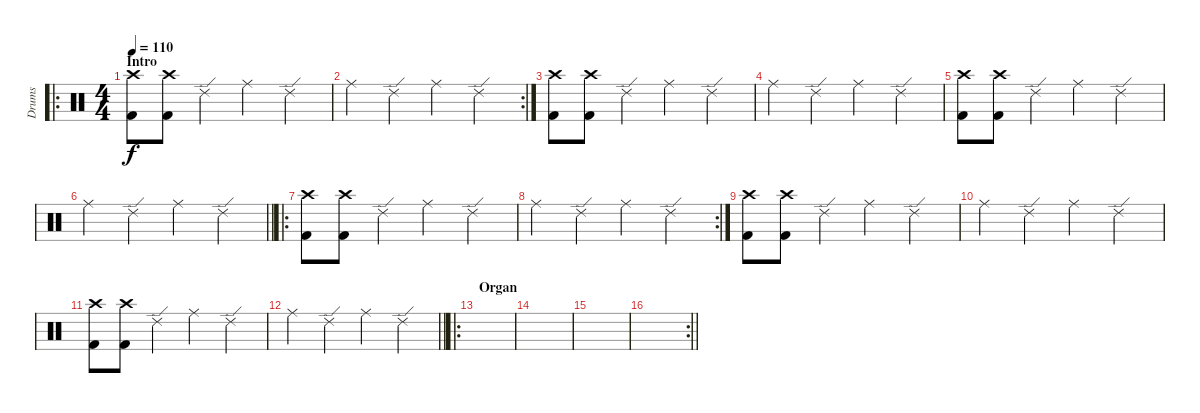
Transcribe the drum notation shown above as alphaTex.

\track ("Drums" "Drums") {instrument percussion}
\staff {score}
\articulation defaults
\ro
\ts (4 4)
\section ("" "Intro")
\tempo 110
\clef neutral
\ks c
("Crash high (hit)" "Kick (hit) 2").8{dy f} ("Crash high (hit)" "Kick (hit) 2").8 "Ride (edge) 2".4 "Ride (middle)".4 "Ride (edge) 2".4 |
\rc 2 "Ride (middle)".4 "Ride (edge) 2".4 "Ride (middle)".4 "Ride (edge) 2".4
|
("Crash high (hit)" "Kick (hit) 2").8 ("Crash high (hit)" "Kick (hit) 2").8 "Ride (edge) 2".4 "Ride (middle)".4 "Ride (edge) 2".4 |
"Ride (middle)".4 "Ride (edge) 2".4 "Ride (middle)".4 "Ride (edge) 2".4 |
("Crash high (hit)" "Kick (hit) 2").8 ("Crash high (hit)" "Kick (hit) 2").8 "Ride (edge) 2".4 "Ride (middle)".4 "Ride (edge) 2".4 |
\barLineRight lightlight "Ride (middle)".4 "Ride (edge) 2".4 "Ride (middle)".4 "Ride (edge) 2".4
|
\ro
\section ("" "")
("Crash high (hit)" "Kick (hit) 2").8 ("Crash high (hit)" "Kick (hit) 2").8 "Ride (edge) 2".4 "Ride (middle)".4 "Ride (edge) 2".4 |
\rc 2 "Ride (middle)".4 "Ride (edge) 2".4 "Ride (middle)".4 "Ride (edge) 2".4
|
("Crash high (hit)" "Kick (hit) 2").8 ("Crash high (hit)" "Kick (hit) 2").8 "Ride (edge) 2".4 "Ride (middle)".4 "Ride (edge) 2".4 |
"Ride (middle)".4 "Ride (edge) 2".4 "Ride (middle)".4 "Ride (edge) 2".4 |
("Crash high (hit)" "Kick (hit) 2").8 ("Crash high (hit)" "Kick (hit) 2").8 "Ride (edge) 2".4 "Ride (middle)".4 "Ride (edge) 2".4 |
\barLineRight lightlight "Ride (middle)".4 "Ride (edge) 2".4 "Ride (middle)".4 "Ride (edge) 2".4
|
\ro
\section ("" "Organ")
|
|
|
\rc 2
\barLineRight lightlight
